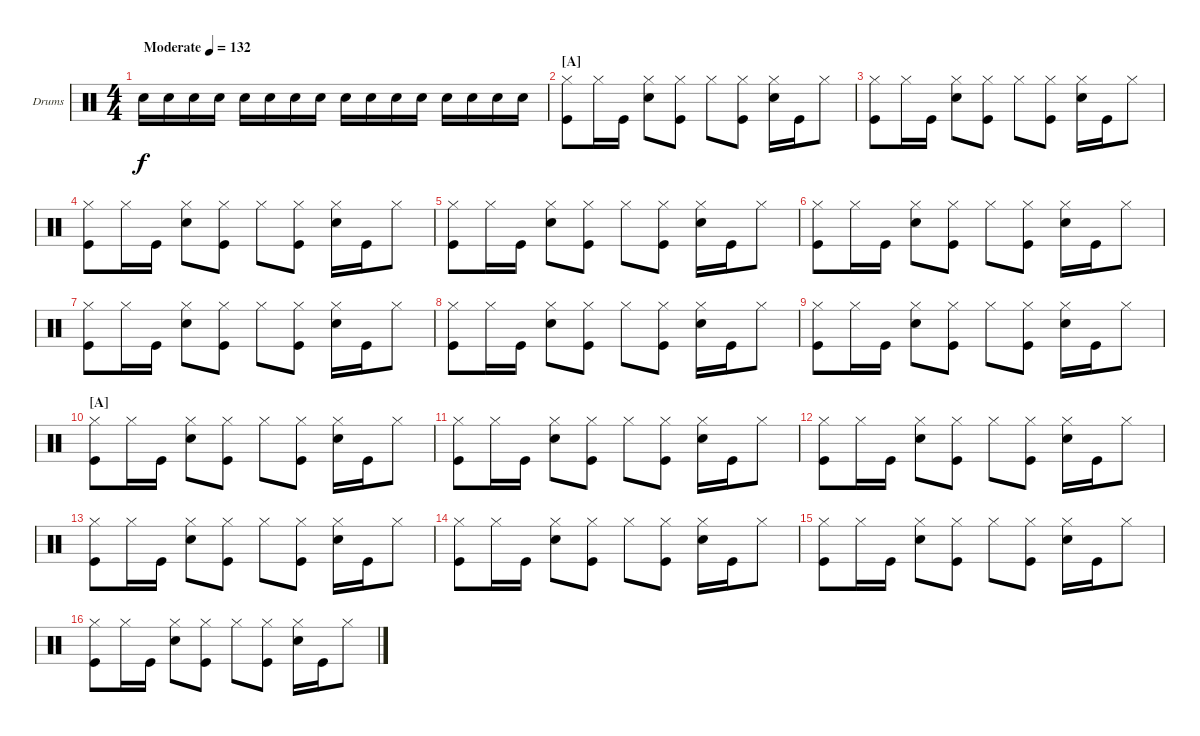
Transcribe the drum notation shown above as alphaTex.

\bracketExtendMode groupsimilarinstruments
\firstSystemTrackNameOrientation horizontal
\otherSystemsTrackNameOrientation horizontal
\track ("Fabrizio Moretti" "Drums") {instrument percussion}
\staff {score}
\articulation defaults
\ts (4 4)
\beaming (8 2 2 2 2)
\tempo (132 "Moderate")
\clef neutral
\ks c "Snare (hit) 2".16{dy f} "Snare (hit) 2".16 "Snare (hit) 2".16 "Snare (hit) 2".16 "Snare (hit) 2".16 "Snare (hit) 2".16 "Snare (hit) 2".16 "Snare (hit) 2".16 "Snare (hit) 2".16 "Snare (hit) 2".16 "Snare (hit) 2".16 "Snare (hit) 2".16 "Snare (hit) 2".16 "Snare (hit) 2".16 "Snare (hit) 2".16 "Snare (hit) 2".16
|
\section ("A" "")
("Hi-Hat (closed)" "Kick (hit)").8 "Hi-Hat (closed)".16 "Kick (hit)".16 ("Hi-Hat (closed)" "Snare (hit) 2").8 ("Hi-Hat (closed)" "Kick (hit)").8 "Hi-Hat (closed)".8 ("Hi-Hat (closed)" "Kick (hit)").8 ("Hi-Hat (closed)" "Snare (hit) 2").16 "Kick (hit)".16 "Hi-Hat (closed)".8 |
("Hi-Hat (closed)" "Kick (hit)").8 "Hi-Hat (closed)".16 "Kick (hit)".16 ("Hi-Hat (closed)" "Snare (hit) 2").8 ("Hi-Hat (closed)" "Kick (hit)").8 "Hi-Hat (closed)".8 ("Hi-Hat (closed)" "Kick (hit)").8 ("Hi-Hat (closed)" "Snare (hit) 2").16 "Kick (hit)".16 "Hi-Hat (closed)".8 |
("Hi-Hat (closed)" "Kick (hit)").8 "Hi-Hat (closed)".16 "Kick (hit)".16 ("Hi-Hat (closed)" "Snare (hit) 2").8 ("Hi-Hat (closed)" "Kick (hit)").8 "Hi-Hat (closed)".8 ("Hi-Hat (closed)" "Kick (hit)").8 ("Hi-Hat (closed)" "Snare (hit) 2").16 "Kick (hit)".16 "Hi-Hat (closed)".8 |
("Hi-Hat (closed)" "Kick (hit)").8 "Hi-Hat (closed)".16 "Kick (hit)".16 ("Hi-Hat (closed)" "Snare (hit) 2").8 ("Hi-Hat (closed)" "Kick (hit)").8 "Hi-Hat (closed)".8 ("Hi-Hat (closed)" "Kick (hit)").8 ("Hi-Hat (closed)" "Snare (hit) 2").16 "Kick (hit)".16 "Hi-Hat (closed)".8 |
("Hi-Hat (closed)" "Kick (hit)").8 "Hi-Hat (closed)".16 "Kick (hit)".16 ("Hi-Hat (closed)" "Snare (hit) 2").8 ("Hi-Hat (closed)" "Kick (hit)").8 "Hi-Hat (closed)".8 ("Hi-Hat (closed)" "Kick (hit)").8 ("Hi-Hat (closed)" "Snare (hit) 2").16 "Kick (hit)".16 "Hi-Hat (closed)".8 |
("Hi-Hat (closed)" "Kick (hit)").8 "Hi-Hat (closed)".16 "Kick (hit)".16 ("Hi-Hat (closed)" "Snare (hit) 2").8 ("Hi-Hat (closed)" "Kick (hit)").8 "Hi-Hat (closed)".8 ("Hi-Hat (closed)" "Kick (hit)").8 ("Hi-Hat (closed)" "Snare (hit) 2").16 "Kick (hit)".16 "Hi-Hat (closed)".8 |
("Hi-Hat (closed)" "Kick (hit)").8 "Hi-Hat (closed)".16 "Kick (hit)".16 ("Hi-Hat (closed)" "Snare (hit) 2").8 ("Hi-Hat (closed)" "Kick (hit)").8 "Hi-Hat (closed)".8 ("Hi-Hat (closed)" "Kick (hit)").8 ("Hi-Hat (closed)" "Snare (hit) 2").16 "Kick (hit)".16 "Hi-Hat (closed)".8 |
("Hi-Hat (closed)" "Kick (hit)").8 "Hi-Hat (closed)".16 "Kick (hit)".16 ("Hi-Hat (closed)" "Snare (hit) 2").8 ("Hi-Hat (closed)" "Kick (hit)").8 "Hi-Hat (closed)".8 ("Hi-Hat (closed)" "Kick (hit)").8 ("Hi-Hat (closed)" "Snare (hit) 2").16 "Kick (hit)".16 "Hi-Hat (closed)".8 |
\section ("A" "")
("Hi-Hat (closed)" "Kick (hit)").8 "Hi-Hat (closed)".16 "Kick (hit)".16 ("Hi-Hat (closed)" "Snare (hit) 2").8 ("Hi-Hat (closed)" "Kick (hit)").8 "Hi-Hat (closed)".8 ("Hi-Hat (closed)" "Kick (hit)").8 ("Hi-Hat (closed)" "Snare (hit) 2").16 "Kick (hit)".16 "Hi-Hat (closed)".8 |
("Hi-Hat (closed)" "Kick (hit)").8 "Hi-Hat (closed)".16 "Kick (hit)".16 ("Hi-Hat (closed)" "Snare (hit) 2").8 ("Hi-Hat (closed)" "Kick (hit)").8 "Hi-Hat (closed)".8 ("Hi-Hat (closed)" "Kick (hit)").8 ("Hi-Hat (closed)" "Snare (hit) 2").16 "Kick (hit)".16 "Hi-Hat (closed)".8 |
("Hi-Hat (closed)" "Kick (hit)").8 "Hi-Hat (closed)".16 "Kick (hit)".16 ("Hi-Hat (closed)" "Snare (hit) 2").8 ("Hi-Hat (closed)" "Kick (hit)").8 "Hi-Hat (closed)".8 ("Hi-Hat (closed)" "Kick (hit)").8 ("Hi-Hat (closed)" "Snare (hit) 2").16 "Kick (hit)".16 "Hi-Hat (closed)".8 |
("Hi-Hat (closed)" "Kick (hit)").8 "Hi-Hat (closed)".16 "Kick (hit)".16 ("Hi-Hat (closed)" "Snare (hit) 2").8 ("Hi-Hat (closed)" "Kick (hit)").8 "Hi-Hat (closed)".8 ("Hi-Hat (closed)" "Kick (hit)").8 ("Hi-Hat (closed)" "Snare (hit) 2").16 "Kick (hit)".16 "Hi-Hat (closed)".8 |
("Hi-Hat (closed)" "Kick (hit)").8 "Hi-Hat (closed)".16 "Kick (hit)".16 ("Hi-Hat (closed)" "Snare (hit) 2").8 ("Hi-Hat (closed)" "Kick (hit)").8 "Hi-Hat (closed)".8 ("Hi-Hat (closed)" "Kick (hit)").8 ("Hi-Hat (closed)" "Snare (hit) 2").16 "Kick (hit)".16 "Hi-Hat (closed)".8 |
("Hi-Hat (closed)" "Kick (hit)").8 "Hi-Hat (closed)".16 "Kick (hit)".16 ("Hi-Hat (closed)" "Snare (hit) 2").8 ("Hi-Hat (closed)" "Kick (hit)").8 "Hi-Hat (closed)".8 ("Hi-Hat (closed)" "Kick (hit)").8 ("Hi-Hat (closed)" "Snare (hit) 2").16 "Kick (hit)".16 "Hi-Hat (closed)".8 |
("Hi-Hat (closed)" "Kick (hit)").8 "Hi-Hat (closed)".16 "Kick (hit)".16 ("Hi-Hat (closed)" "Snare (hit) 2").8 ("Hi-Hat (closed)" "Kick (hit)").8 "Hi-Hat (closed)".8 ("Hi-Hat (closed)" "Kick (hit)").8 ("Hi-Hat (closed)" "Snare (hit) 2").16 "Kick (hit)".16 "Hi-Hat (closed)".8
